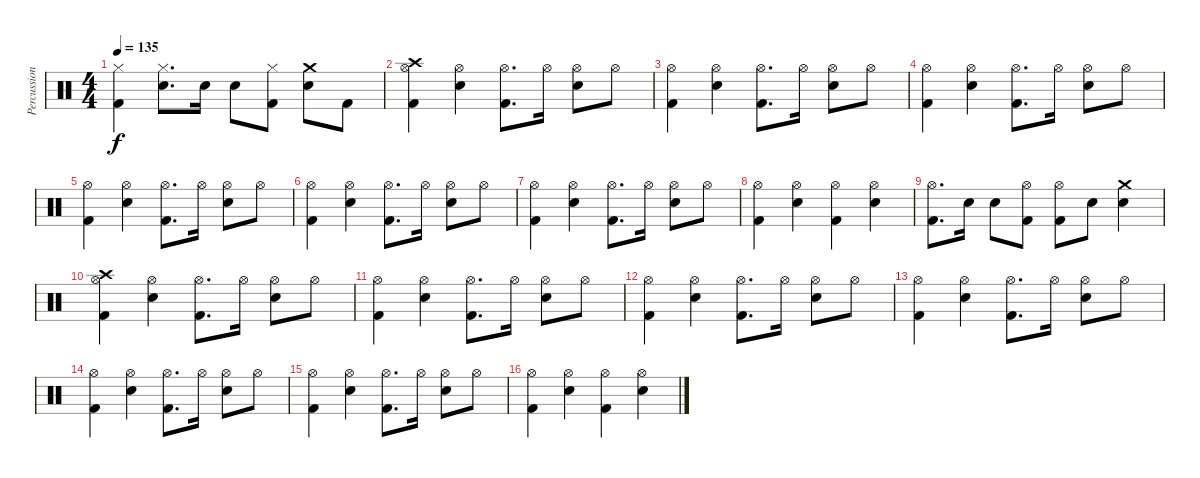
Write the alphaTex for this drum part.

\track ("Percussions" "Percussion") {instrument percussion}
\staff {score}
\articulation defaults
\ts (4 4)
\tempo 135
\clef neutral
\ks c
("Hi-Hat (closed)" "Kick (hit) 2").4{dy f} ("Hi-Hat (closed)" "Snare (hit) 2").8{d} "Snare (hit) 2".16 "Snare (hit) 2".8 ("Hi-Hat (closed)" "Kick (hit) 2").8 ("Crash medium (hit)" "Snare (hit) 2").8 "Kick (hit) 2".8 |
("Crash high (hit)" "Hi-Hat (open)" "Kick (hit) 2").4 ("Hi-Hat (open)" "Snare (hit) 2").4 ("Hi-Hat (open)" "Kick (hit) 2").8{d} "Hi-Hat (open)".16 ("Hi-Hat (open)" "Snare (hit) 2").8 "Hi-Hat (open)".8 |
("Hi-Hat (open)" "Kick (hit) 2").4 ("Hi-Hat (open)" "Snare (hit) 2").4 ("Hi-Hat (open)" "Kick (hit) 2").8{d} "Hi-Hat (open)".16 ("Hi-Hat (open)" "Snare (hit) 2").8 "Hi-Hat (open)".8 |
("Hi-Hat (open)" "Kick (hit) 2").4 ("Hi-Hat (open)" "Snare (hit) 2").4 ("Hi-Hat (open)" "Kick (hit) 2").8{d} "Hi-Hat (open)".16 ("Hi-Hat (open)" "Snare (hit) 2").8 "Hi-Hat (open)".8 |
("Hi-Hat (open)" "Kick (hit) 2").4 ("Hi-Hat (open)" "Snare (hit) 2").4 ("Hi-Hat (open)" "Kick (hit) 2").8{d} "Hi-Hat (open)".16 ("Hi-Hat (open)" "Snare (hit) 2").8 "Hi-Hat (open)".8 |
("Hi-Hat (open)" "Kick (hit) 2").4 ("Hi-Hat (open)" "Snare (hit) 2").4 ("Hi-Hat (open)" "Kick (hit) 2").8{d} "Hi-Hat (open)".16 ("Hi-Hat (open)" "Snare (hit) 2").8 "Hi-Hat (open)".8 |
("Hi-Hat (open)" "Kick (hit) 2").4 ("Hi-Hat (open)" "Snare (hit) 2").4 ("Hi-Hat (open)" "Kick (hit) 2").8{d} "Hi-Hat (open)".16 ("Hi-Hat (open)" "Snare (hit) 2").8 "Hi-Hat (open)".8 |
("Hi-Hat (open)" "Kick (hit) 2").4 ("Hi-Hat (open)" "Snare (hit) 2").4 ("Hi-Hat (open)" "Kick (hit) 2").4 ("Hi-Hat (open)" "Snare (hit) 2").4 |
("Hi-Hat (open)" "Kick (hit) 2").8{d} "Snare (hit) 2".16 "Snare (hit) 2".8 ("Hi-Hat (open)" "Kick (hit) 2").8 ("Hi-Hat (open)" "Kick (hit) 2").8 "Snare (hit) 2".8 ("Crash medium (hit)" "Snare (hit) 2").4 |
("Crash high (hit)" "Hi-Hat (open)" "Kick (hit) 2").4 ("Hi-Hat (open)" "Snare (hit) 2").4 ("Hi-Hat (open)" "Kick (hit) 2").8{d} "Hi-Hat (open)".16 ("Hi-Hat (open)" "Snare (hit) 2").8 "Hi-Hat (open)".8 |
("Hi-Hat (open)" "Kick (hit) 2").4 ("Hi-Hat (open)" "Snare (hit) 2").4 ("Hi-Hat (open)" "Kick (hit) 2").8{d} "Hi-Hat (open)".16 ("Hi-Hat (open)" "Snare (hit) 2").8 "Hi-Hat (open)".8 |
("Hi-Hat (open)" "Kick (hit) 2").4 ("Hi-Hat (open)" "Snare (hit) 2").4 ("Hi-Hat (open)" "Kick (hit) 2").8{d} "Hi-Hat (open)".16 ("Hi-Hat (open)" "Snare (hit) 2").8 "Hi-Hat (open)".8 |
("Hi-Hat (open)" "Kick (hit) 2").4 ("Hi-Hat (open)" "Snare (hit) 2").4 ("Hi-Hat (open)" "Kick (hit) 2").8{d} "Hi-Hat (open)".16 ("Hi-Hat (open)" "Snare (hit) 2").8 "Hi-Hat (open)".8 |
("Hi-Hat (open)" "Kick (hit) 2").4 ("Hi-Hat (open)" "Snare (hit) 2").4 ("Hi-Hat (open)" "Kick (hit) 2").8{d} "Hi-Hat (open)".16 ("Hi-Hat (open)" "Snare (hit) 2").8 "Hi-Hat (open)".8 |
("Hi-Hat (open)" "Kick (hit) 2").4 ("Hi-Hat (open)" "Snare (hit) 2").4 ("Hi-Hat (open)" "Kick (hit) 2").8{d} "Hi-Hat (open)".16 ("Hi-Hat (open)" "Snare (hit) 2").8 "Hi-Hat (open)".8 |
("Hi-Hat (open)" "Kick (hit) 2").4 ("Hi-Hat (open)" "Snare (hit) 2").4 ("Hi-Hat (open)" "Kick (hit) 2").4 ("Hi-Hat (open)" "Snare (hit) 2").4
